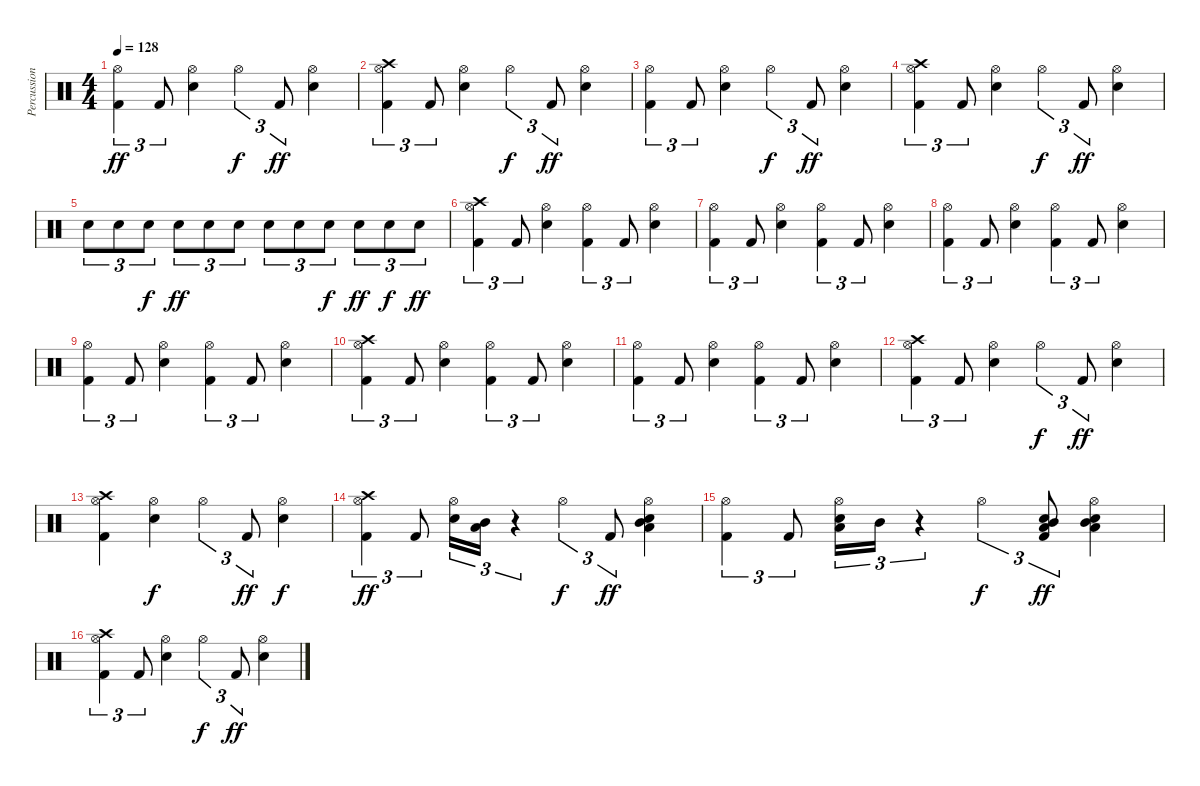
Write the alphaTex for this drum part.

\track ("Percussion" "Percussion") {instrument percussion}
\staff {score}
\articulation defaults
\ts (4 4)
\tempo 128
\clef neutral
\ks c
("Hi-Hat (open)" "Kick (hit) 2").4{tu (3 2) dy ff} "Kick (hit) 2".8{tu (3 2)} ("Snare (hit) 2" "Hi-Hat (open)").4 "Hi-Hat (open)".4{tu (3 2) dy f} "Kick (hit) 2".8{tu (3 2) dy ff} ("Snare (hit) 2" "Hi-Hat (open)").4 |
("Crash high (hit)" "Hi-Hat (open)" "Kick (hit) 2").4{tu (3 2)} "Kick (hit) 2".8{tu (3 2)} ("Hi-Hat (open)" "Snare (hit) 2").4 "Hi-Hat (open)".4{tu (3 2) dy f} "Kick (hit) 2".8{tu (3 2) dy ff} ("Snare (hit) 2" "Hi-Hat (open)").4 |
("Kick (hit) 2" "Hi-Hat (open)").4{tu (3 2)} "Kick (hit) 2".8{tu (3 2)} ("Snare (hit) 2" "Hi-Hat (open)").4 "Hi-Hat (open)".4{tu (3 2) dy f} "Kick (hit) 2".8{tu (3 2) dy ff} ("Snare (hit) 2" "Hi-Hat (open)").4 |
("Crash high (hit)" "Hi-Hat (open)" "Kick (hit) 2").4{tu (3 2)} "Kick (hit) 2".8{tu (3 2)} ("Snare (hit) 2" "Hi-Hat (open)").4 "Hi-Hat (open)".4{tu (3 2) dy f} "Kick (hit) 2".8{tu (3 2) dy ff} ("Hi-Hat (open)" "Snare (hit) 2").4 |
"Snare (hit) 2".8{tu (3 2)} "Snare (hit) 2".8{tu (3 2)} "Snare (hit) 2".8{tu (3 2) dy f} "Snare (hit) 2".8{tu (3 2) dy ff} "Snare (hit) 2".8{tu (3 2)} "Snare (hit) 2".8{tu (3 2)} "Snare (hit) 2".8{tu (3 2)} "Snare (hit) 2".8{tu (3 2)} "Snare (hit) 2".8{tu (3 2) dy f} "Snare (hit) 2".8{tu (3 2) dy ff} "Snare (hit) 2".8{tu (3 2) dy f} "Snare (hit) 2".8{tu (3 2) dy ff} |
("Kick (hit) 2" "Crash high (hit)" "Hi-Hat (open)").4{tu (3 2)} "Kick (hit) 2".8{tu (3 2)} ("Hi-Hat (open)" "Snare (hit) 2").4 ("Kick (hit) 2" "Hi-Hat (open)").4{tu (3 2)} "Kick (hit) 2".8{tu (3 2)} ("Snare (hit) 2" "Hi-Hat (open)").4 |
("Kick (hit) 2" "Hi-Hat (open)").4{tu (3 2)} "Kick (hit) 2".8{tu (3 2)} ("Hi-Hat (open)" "Snare (hit) 2").4 ("Hi-Hat (open)" "Kick (hit) 2").4{tu (3 2)} "Kick (hit) 2".8{tu (3 2)} ("Hi-Hat (open)" "Snare (hit) 2").4 |
("Kick (hit) 2" "Hi-Hat (open)").4{tu (3 2)} "Kick (hit) 2".8{tu (3 2)} ("Snare (hit) 2" "Hi-Hat (open)").4 ("Hi-Hat (open)" "Kick (hit) 2").4{tu (3 2)} "Kick (hit) 2".8{tu (3 2)} ("Snare (hit) 2" "Hi-Hat (open)").4 |
("Kick (hit) 2" "Hi-Hat (open)").4{tu (3 2)} "Kick (hit) 2".8{tu (3 2)} ("Snare (hit) 2" "Hi-Hat (open)").4 ("Hi-Hat (open)" "Kick (hit) 2").4{tu (3 2)} "Kick (hit) 2".8{tu (3 2)} ("Snare (hit) 2" "Hi-Hat (open)").4 |
("Crash high (hit)" "Hi-Hat (open)" "Kick (hit) 2").4{tu (3 2)} "Kick (hit) 2".8{tu (3 2)} ("Snare (hit) 2" "Hi-Hat (open)").4 ("Hi-Hat (open)" "Kick (hit) 2").4{tu (3 2)} "Kick (hit) 2".8{tu (3 2)} ("Snare (hit) 2" "Hi-Hat (open)").4 |
("Kick (hit) 2" "Hi-Hat (open)").4{tu (3 2)} "Kick (hit) 2".8{tu (3 2)} ("Snare (hit) 2" "Hi-Hat (open)").4 ("Kick (hit) 2" "Hi-Hat (open)").4{tu (3 2)} "Kick (hit) 2".8{tu (3 2)} ("Hi-Hat (open)" "Snare (hit) 2").4 |
("Kick (hit) 2" "Hi-Hat (open)" "Crash high (hit)").4{tu (3 2)} "Kick (hit) 2".8{tu (3 2)} ("Snare (hit) 2" "Hi-Hat (open)").4 "Hi-Hat (open)".4{tu (3 2) dy f} "Kick (hit) 2".8{tu (3 2) dy ff} ("Snare (hit) 2" "Hi-Hat (open)").4 |
("Hi-Hat (open)" "Crash high (hit)" "Kick (hit) 2").4 ("Hi-Hat (open)" "Snare (hit) 2").4{dy f} "Hi-Hat (open)".4{tu (3 2)} "Kick (hit) 2".8{tu (3 2) dy ff} ("Hi-Hat (open)" "Snare (hit) 2").4{dy f} |
("Crash high (hit)" "Kick (hit) 2" "Hi-Hat (open)").4{tu (3 2) dy ff} "Kick (hit) 2".8{tu (3 2)} ("Snare (hit) 2" "Hi-Hat (open)").16{tu (3 2)} ("Mid Tom (hit)" "Low Floor Tom (hit)").16{tu (3 2)} r.4{tu (3 2)} "Hi-Hat (open)".4{tu (3 2) dy f} "Kick (hit) 2".8{tu (3 2) dy ff} ("Snare (hit) 2" "Hi-Hat (open)" "Mid Tom (hit)" "Low Floor Tom (hit)").4 |
("Kick (hit) 2" "Hi-Hat (open)").4{tu (3 2)} "Kick (hit) 2".8{tu (3 2)} ("Snare (hit) 2" "Hi-Hat (open)" "Low Floor Tom (hit)").16{tu (3 2)} "Mid Tom (hit)".16{tu (3 2)} r.4{tu (3 2)} "Hi-Hat (open)".4{tu (3 2) dy f} ("Snare (hit) 2" "Kick (hit) 2" "Mid Tom (hit)" "Low Floor Tom (hit)").8{tu (3 2) dy ff} ("Low Floor Tom (hit)" "Hi-Hat (open)" "Snare (hit) 2" "Mid Tom (hit)").4 |
("Kick (hit) 2" "Crash high (hit)" "Hi-Hat (open)").4{tu (3 2)} "Kick (hit) 2".8{tu (3 2)} ("Snare (hit) 2" "Hi-Hat (open)").4 "Hi-Hat (open)".4{tu (3 2) dy f} "Kick (hit) 2".8{tu (3 2) dy ff} ("Snare (hit) 2" "Hi-Hat (open)").4
